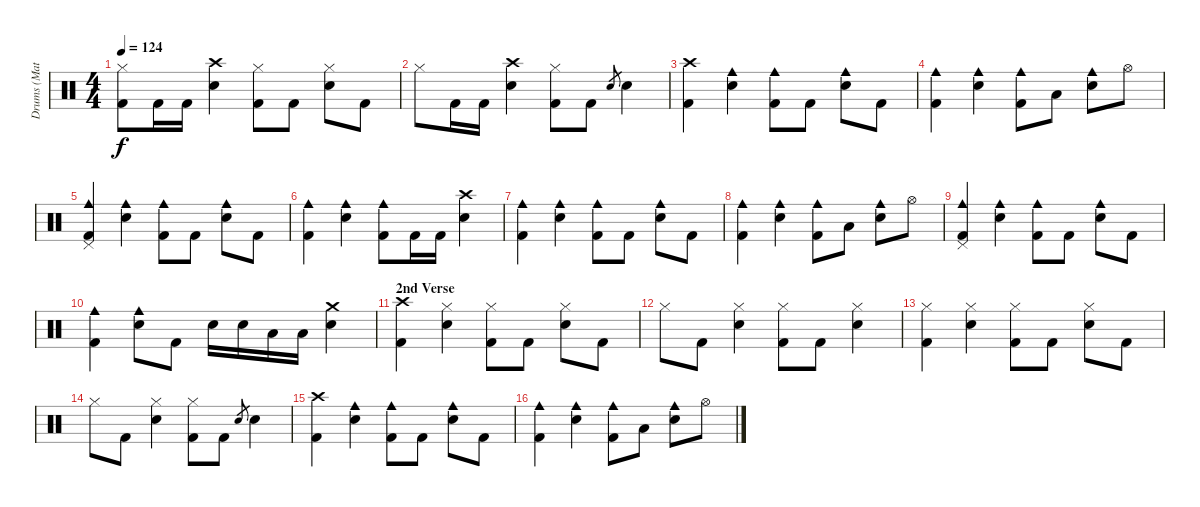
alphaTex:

\track ("Drums (Matt)" "Drums (Mat") {instrument percussion}
\staff {score}
\articulation defaults
\ts (4 4)
\tempo 124
\clef neutral
\ks c
("Hi-Hat (closed)" "Kick (hit) 2").8{dy f} "Kick (hit) 2".16 "Kick (hit) 2".16 ("Crash high (hit)" "Snare (hit) 2").4 ("Hi-Hat (closed)" "Kick (hit) 2").8 "Kick (hit) 2".8 ("Hi-Hat (closed)" "Snare (hit) 2").8 "Kick (hit) 2".8 |
"Hi-Hat (closed)".8 "Kick (hit) 2".16 "Kick (hit) 2".16 ("Crash high (hit)" "Snare (hit) 2").4 ("Hi-Hat (closed)" "Kick (hit) 2").8 "Kick (hit) 2".8 "Snare (hit) 2".8{gr} "Snare (hit) 2".4 |
("Crash high (hit)" "Kick (hit) 2").4 ("Cowbell medium (hit)" "Snare (hit) 2").4 ("Cowbell medium (hit)" "Kick (hit) 2").8 "Kick (hit) 2".8 ("Cowbell medium (hit)" "Snare (hit) 2").8 "Kick (hit) 2".8 |
("Cowbell medium (hit)" "Kick (hit) 2").4 ("Cowbell medium (hit)" "Snare (hit) 2").4 ("Cowbell medium (hit)" "Kick (hit) 2").8 "Low Tom (hit)".8 ("Cowbell medium (hit)" "Snare (hit) 2").8 "Hi-Hat (open)".8 |
("Cowbell medium (hit)" "Pedal Hi-Hat (hit)" "Kick (hit) 2").4 ("Cowbell medium (hit)" "Snare (hit) 2").4 ("Cowbell medium (hit)" "Kick (hit) 2").8 "Kick (hit) 2".8 ("Cowbell medium (hit)" "Snare (hit) 2").8 "Kick (hit) 2".8 |
("Cowbell medium (hit)" "Kick (hit) 2").4 ("Cowbell medium (hit)" "Snare (hit) 2").4 ("Cowbell medium (hit)" "Kick (hit) 2").8 "Kick (hit) 2".16 "Kick (hit) 2".16 ("Crash high (hit)" "Snare (hit) 2").4 |
("Cowbell medium (hit)" "Kick (hit) 2").4 ("Cowbell medium (hit)" "Snare (hit) 2").4 ("Cowbell medium (hit)" "Kick (hit) 2").8 "Kick (hit) 2".8 ("Cowbell medium (hit)" "Snare (hit) 2").8 "Kick (hit) 2".8 |
("Cowbell medium (hit)" "Kick (hit) 2").4 ("Cowbell medium (hit)" "Snare (hit) 2").4 ("Cowbell medium (hit)" "Kick (hit) 2").8 "Low Tom (hit)".8 ("Cowbell medium (hit)" "Snare (hit) 2").8 "Hi-Hat (open)".8 |
("Cowbell medium (hit)" "Pedal Hi-Hat (hit)" "Kick (hit) 2").4 ("Cowbell medium (hit)" "Snare (hit) 2").4 ("Cowbell medium (hit)" "Kick (hit) 2").8 "Kick (hit) 2".8 ("Cowbell medium (hit)" "Snare (hit) 2").8 "Kick (hit) 2".8 |
("Cowbell medium (hit)" "Kick (hit) 2").4 ("Cowbell medium (hit)" "Snare (hit) 2").8 "Kick (hit) 2".8 "Snare (hit) 2".16 "Snare (hit) 2".16 "Low Tom (hit)".16 "Low Tom (hit)".16 ("Crash medium (hit)" "Snare (hit) 2").4 |
\section ("" "2nd Verse")
("Crash high (hit)" "Kick (hit) 2").4 ("Hi-Hat (closed)" "Snare (hit) 2").4 ("Hi-Hat (closed)" "Kick (hit) 2").8 "Kick (hit) 2".8 ("Hi-Hat (closed)" "Snare (hit) 2").8 "Kick (hit) 2".8 |
"Hi-Hat (closed)".8 "Kick (hit) 2".8 ("Hi-Hat (closed)" "Snare (hit) 2").4 ("Hi-Hat (closed)" "Kick (hit) 2").8 "Kick (hit) 2".8 ("Hi-Hat (closed)" "Snare (hit) 2").4 |
("Hi-Hat (closed)" "Kick (hit) 2").4 ("Hi-Hat (closed)" "Snare (hit) 2").4 ("Hi-Hat (closed)" "Kick (hit) 2").8 "Kick (hit) 2".8 ("Hi-Hat (closed)" "Snare (hit) 2").8 "Kick (hit) 2".8 |
"Hi-Hat (closed)".8 "Kick (hit) 2".8 ("Hi-Hat (closed)" "Snare (hit) 2").4 ("Hi-Hat (closed)" "Kick (hit) 2").8 "Kick (hit) 2".8 "Snare (hit) 2".8{gr} "Snare (hit) 2".4 |
("Crash high (hit)" "Kick (hit) 2").4 ("Cowbell medium (hit)" "Snare (hit) 2").4 ("Cowbell medium (hit)" "Kick (hit) 2").8 "Kick (hit) 2".8 ("Cowbell medium (hit)" "Snare (hit) 2").8 "Kick (hit) 2".8 |
("Cowbell medium (hit)" "Kick (hit) 2").4 ("Cowbell medium (hit)" "Snare (hit) 2").4 ("Cowbell medium (hit)" "Kick (hit) 2").8 "Low Tom (hit)".8 ("Cowbell medium (hit)" "Snare (hit) 2").8 "Hi-Hat (open)".8
